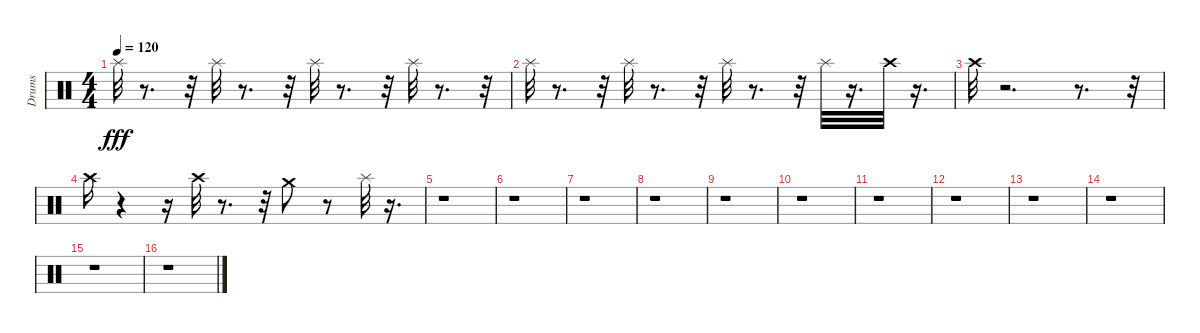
\track ("Drums" "Drums") {instrument percussion}
\staff {score}
\articulation defaults
\ts (4 4)
\tempo 120
\clef neutral
\ks c "Splash (hit)".32{dy fff}
r.8{d} r.32 "Splash (hit)".32 r.8{d} r.32 "Splash (hit)".32 r.8{d} r.32 "Splash (hit)".32 r.8{d} r.32 |
"Splash (hit)".32 r.8{d} r.32 "Splash (hit)".32 r.8{d} r.32 "Splash (hit)".32 r.8{d} r.32 "Splash (hit)".32 r.16{d} "Crash high (hit)".32 r.16{d} |
"Crash high (hit)".32 r.2{d} r.8{d} r.32 |
"Crash high (hit)".16 r.4 r.16 "Crash high (hit)".32 r.8{d} r.32 "Crash medium (hit)".8 r.8 "Splash (hit)".32 r.16{d} |
r.1 |
r.1 |
r.1 |
r.1 |
r.1 |
r.1 |
r.1 |
r.1 |
r.1 |
r.1 |
r.1 |
r.1
